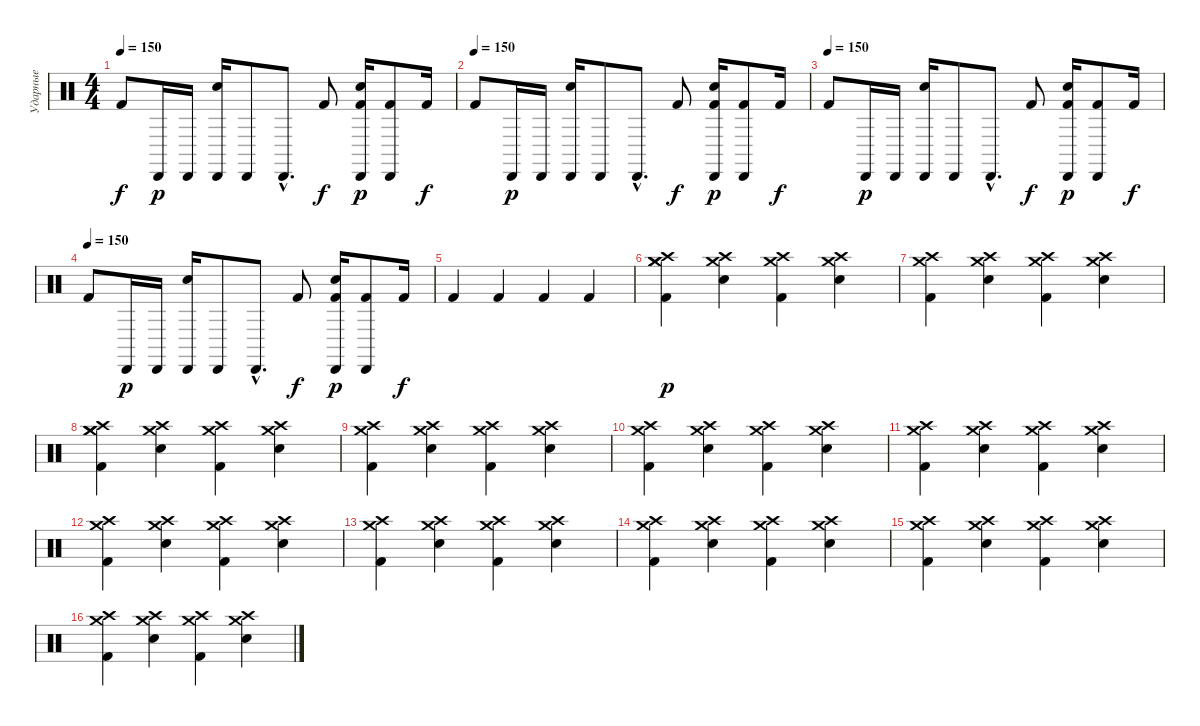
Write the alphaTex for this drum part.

\track ("Ударные" "Ударные") {instrument percussion}
\staff {score}
\articulation defaults
\ts (4 4)
\tempo 150
\clef neutral
\ks c "Kick (hit) 2".8{dy f} "Cabasa (hit)".16{dy p} "Cabasa (hit)".16
("Cabasa (hit)" "Electric Snare (hit)").16 "Cabasa (hit)".8 "Cabasa (hit)"{hac}.8{d} "Kick (hit) 2".8{dy f} ("Cabasa (hit)" "Electric Snare (hit)" "Kick (hit) 2").16{dy p} ("Cabasa (hit)" "Kick (hit) 2").8 "Kick (hit) 2".16{dy f} |
\tempo (150)
"Kick (hit) 2".8 "Cabasa (hit)".16{dy p} "Cabasa (hit)".16 ("Cabasa (hit)" "Electric Snare (hit)").16 "Cabasa (hit)".8 "Cabasa (hit)"{hac}.8{d} "Kick (hit) 2".8{dy f} ("Cabasa (hit)" "Electric Snare (hit)" "Kick (hit) 2").16{dy p} ("Cabasa (hit)" "Kick (hit) 2").8 "Kick (hit) 2".16{dy f} |
\tempo (150)
"Kick (hit) 2".8 "Cabasa (hit)".16{dy p} "Cabasa (hit)".16 ("Cabasa (hit)" "Electric Snare (hit)").16 "Cabasa (hit)".8 "Cabasa (hit)"{hac}.8{d} "Kick (hit) 2".8{dy f} ("Cabasa (hit)" "Electric Snare (hit)" "Kick (hit) 2").16{dy p} ("Cabasa (hit)" "Kick (hit) 2").8 "Kick (hit) 2".16{dy f} |
\tempo (150)
"Kick (hit) 2".8 "Cabasa (hit)".16{dy p} "Cabasa (hit)".16 ("Cabasa (hit)" "Electric Snare (hit)").16 "Cabasa (hit)".8 "Cabasa (hit)"{hac}.8{d} "Kick (hit) 2".8{dy f} ("Cabasa (hit)" "Electric Snare (hit)" "Kick (hit) 2").16{dy p} ("Cabasa (hit)" "Kick (hit) 2").8 "Kick (hit) 2".16{dy f} |
"Kick (hit) 2".4 "Kick (hit) 2".4 "Kick (hit) 2".4 "Kick (hit) 2".4 |
("Crash medium (hit)" "Crash medium (hit)" "Crash high (hit)" "Kick (hit) 2").4{dy p} ("Electric Snare (hit)" "Crash medium (hit)" "Crash high (hit)").4 ("Kick (hit) 2" "Crash medium (hit)" "Crash high (hit)").4 ("Electric Snare (hit)" "Crash medium (hit)" "Crash high (hit)").4 |
("Crash medium (hit)" "Crash high (hit)" "Kick (hit) 2").4 ("Electric Snare (hit)" "Crash medium (hit)" "Crash high (hit)").4 ("Kick (hit) 2" "Crash medium (hit)" "Crash high (hit)").4 ("Electric Snare (hit)" "Crash medium (hit)" "Crash high (hit)").4 |
("Crash medium (hit)" "Crash medium (hit)" "Crash high (hit)" "Kick (hit) 2").4 ("Electric Snare (hit)" "Crash medium (hit)" "Crash high (hit)").4 ("Kick (hit) 2" "Crash medium (hit)" "Crash high (hit)").4 ("Electric Snare (hit)" "Crash medium (hit)" "Crash high (hit)").4 |
("Crash medium (hit)" "Crash high (hit)" "Kick (hit) 2").4 ("Electric Snare (hit)" "Crash medium (hit)" "Crash high (hit)").4 ("Kick (hit) 2" "Crash medium (hit)" "Crash high (hit)").4 ("Electric Snare (hit)" "Crash medium (hit)" "Crash high (hit)").4 |
("Crash medium (hit)" "Crash high (hit)" "Kick (hit) 2").4 ("Electric Snare (hit)" "Crash medium (hit)" "Crash high (hit)").4 ("Kick (hit) 2" "Crash medium (hit)" "Crash high (hit)").4 ("Electric Snare (hit)" "Crash medium (hit)" "Crash high (hit)").4 |
("Crash medium (hit)" "Crash high (hit)" "Kick (hit) 2").4 ("Electric Snare (hit)" "Crash medium (hit)" "Crash high (hit)").4 ("Kick (hit) 2" "Crash medium (hit)" "Crash high (hit)").4 ("Electric Snare (hit)" "Crash medium (hit)" "Crash high (hit)").4 |
("Crash medium (hit)" "Crash high (hit)" "Kick (hit) 2").4 ("Electric Snare (hit)" "Crash medium (hit)" "Crash high (hit)").4 ("Kick (hit) 2" "Crash medium (hit)" "Crash high (hit)").4 ("Electric Snare (hit)" "Crash medium (hit)" "Crash high (hit)").4 |
("Crash medium (hit)" "Crash high (hit)" "Kick (hit) 2").4 ("Electric Snare (hit)" "Crash medium (hit)" "Crash high (hit)").4 ("Kick (hit) 2" "Crash medium (hit)" "Crash high (hit)").4 ("Electric Snare (hit)" "Crash medium (hit)" "Crash high (hit)").4 |
("Crash medium (hit)" "Crash high (hit)" "Kick (hit) 2").4 ("Electric Snare (hit)" "Crash medium (hit)" "Crash high (hit)").4 ("Kick (hit) 2" "Crash medium (hit)" "Crash high (hit)").4 ("Electric Snare (hit)" "Crash medium (hit)" "Crash high (hit)").4 |
("Crash medium (hit)" "Crash high (hit)" "Kick (hit) 2").4 ("Electric Snare (hit)" "Crash medium (hit)" "Crash high (hit)").4 ("Kick (hit) 2" "Crash medium (hit)" "Crash high (hit)").4 ("Electric Snare (hit)" "Crash medium (hit)" "Crash high (hit)").4 |
("Crash medium (hit)" "Crash high (hit)" "Kick (hit) 2").4 ("Electric Snare (hit)" "Crash medium (hit)" "Crash high (hit)").4 ("Kick (hit) 2" "Crash medium (hit)" "Crash high (hit)").4 ("Electric Snare (hit)" "Crash medium (hit)" "Crash high (hit)").4
